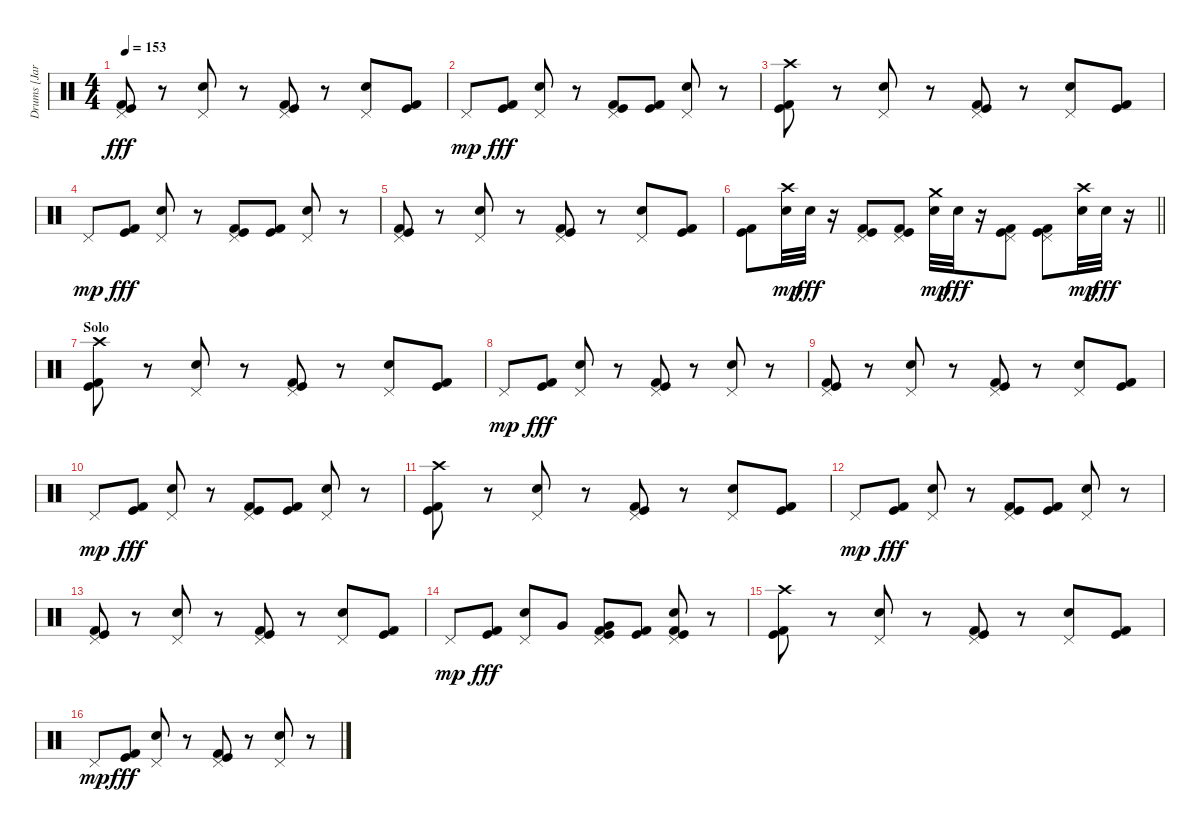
\track ("Drums [Jari]" "Drums [Jar") {instrument percussion}
\staff {score}
\articulation defaults
\ts (4 4)
\tempo 153
\clef neutral
\ks c
("Kick (hit) 2" "Pedal Hi-Hat (hit)" "Kick (hit)").8{dy fff} r.8 ("Pedal Hi-Hat (hit)" "Electric Snare (hit)").8 r.8 ("Kick (hit) 2" "Pedal Hi-Hat (hit)" "Kick (hit)").8 r.8 ("Pedal Hi-Hat (hit)" "Electric Snare (hit)").8 ("Kick (hit) 2" "Kick (hit)").8 |
"Pedal Hi-Hat (hit)".8{dy mp} ("Kick (hit) 2" "Kick (hit)").8{dy fff} ("Pedal Hi-Hat (hit)" "Electric Snare (hit)").8 r.8 ("Kick (hit) 2" "Pedal Hi-Hat (hit)" "Kick (hit)").8 ("Kick (hit) 2" "Kick (hit)").8 ("Pedal Hi-Hat (hit)" "Electric Snare (hit)").8 r.8 |
("Kick (hit) 2" "Crash high (hit)" "Kick (hit)").8 r.8 ("Pedal Hi-Hat (hit)" "Electric Snare (hit)").8 r.8 ("Kick (hit) 2" "Pedal Hi-Hat (hit)" "Kick (hit)").8 r.8 ("Pedal Hi-Hat (hit)" "Electric Snare (hit)").8 ("Kick (hit) 2" "Kick (hit)").8 |
"Pedal Hi-Hat (hit)".8{dy mp} ("Kick (hit) 2" "Kick (hit)").8{dy fff} ("Pedal Hi-Hat (hit)" "Electric Snare (hit)").8 r.8 ("Kick (hit) 2" "Pedal Hi-Hat (hit)" "Kick (hit)").8 ("Kick (hit) 2" "Kick (hit)").8 ("Pedal Hi-Hat (hit)" "Electric Snare (hit)").8 r.8 |
("Kick (hit) 2" "Pedal Hi-Hat (hit)" "Kick (hit)").8 r.8 ("Pedal Hi-Hat (hit)" "Electric Snare (hit)").8 r.8 ("Kick (hit) 2" "Pedal Hi-Hat (hit)" "Kick (hit)").8 r.8 ("Pedal Hi-Hat (hit)" "Electric Snare (hit)").8 ("Kick (hit) 2" "Kick (hit)").8 |
\barLineRight lightlight
("Kick (hit) 2" "Kick (hit)").8 ("Crash high (hit)" "Electric Snare (hit)").32{dy mp} "Electric Snare (hit)".32{dy fff} r.16 ("Kick (hit) 2" "Pedal Hi-Hat (hit)" "Kick (hit)").8 ("Kick (hit) 2" "Pedal Hi-Hat (hit)" "Kick (hit)").8 ("Crash medium (hit)" "Electric Snare (hit)").32{dy mp} "Electric Snare (hit)".32{dy fff} r.16 ("Kick (hit) 2" "Pedal Hi-Hat (hit)" "Kick (hit)").8 ("Kick (hit) 2" "Pedal Hi-Hat (hit)" "Kick (hit)").8 ("Crash high (hit)" "Electric Snare (hit)").32{dy mp} "Electric Snare (hit)".32{dy fff} r.16 |
\section ("" "Solo")
("Kick (hit) 2" "Crash high (hit)" "Kick (hit)").8 r.8 ("Pedal Hi-Hat (hit)" "Electric Snare (hit)").8 r.8 ("Kick (hit) 2" "Pedal Hi-Hat (hit)" "Kick (hit)").8 r.8 ("Pedal Hi-Hat (hit)" "Electric Snare (hit)").8 ("Kick (hit) 2" "Kick (hit)").8 |
"Pedal Hi-Hat (hit)".8{dy mp} ("Kick (hit) 2" "Kick (hit)").8{dy fff} ("Pedal Hi-Hat (hit)" "Electric Snare (hit)").8 r.8 ("Kick (hit) 2" "Pedal Hi-Hat (hit)" "Kick (hit)").8 r.8 ("Pedal Hi-Hat (hit)" "Electric Snare (hit)").8 r.8 |
("Kick (hit) 2" "Pedal Hi-Hat (hit)" "Kick (hit)").8 r.8 ("Pedal Hi-Hat (hit)" "Electric Snare (hit)").8 r.8 ("Kick (hit) 2" "Pedal Hi-Hat (hit)" "Kick (hit)").8 r.8 ("Pedal Hi-Hat (hit)" "Electric Snare (hit)").8 ("Kick (hit) 2" "Kick (hit)").8 |
"Pedal Hi-Hat (hit)".8{dy mp} ("Kick (hit) 2" "Kick (hit)").8{dy fff} ("Pedal Hi-Hat (hit)" "Electric Snare (hit)").8 r.8 ("Kick (hit) 2" "Pedal Hi-Hat (hit)" "Kick (hit)").8 ("Kick (hit) 2" "Kick (hit)").8 ("Pedal Hi-Hat (hit)" "Electric Snare (hit)").8 r.8 |
("Kick (hit) 2" "Crash high (hit)" "Kick (hit)").8 r.8 ("Pedal Hi-Hat (hit)" "Electric Snare (hit)").8 r.8 ("Kick (hit) 2" "Pedal Hi-Hat (hit)" "Kick (hit)").8 r.8 ("Pedal Hi-Hat (hit)" "Electric Snare (hit)").8 ("Kick (hit) 2" "Kick (hit)").8 |
"Pedal Hi-Hat (hit)".8{dy mp} ("Kick (hit) 2" "Kick (hit)").8{dy fff} ("Pedal Hi-Hat (hit)" "Electric Snare (hit)").8 r.8 ("Kick (hit) 2" "Pedal Hi-Hat (hit)" "Kick (hit)").8 ("Kick (hit) 2" "Kick (hit)").8 ("Pedal Hi-Hat (hit)" "Electric Snare (hit)").8 r.8 |
("Kick (hit) 2" "Pedal Hi-Hat (hit)" "Kick (hit)").8 r.8 ("Pedal Hi-Hat (hit)" "Electric Snare (hit)").8 r.8 ("Kick (hit) 2" "Pedal Hi-Hat (hit)" "Kick (hit)").8 r.8 ("Pedal Hi-Hat (hit)" "Electric Snare (hit)").8 ("Kick (hit) 2" "Kick (hit)").8 |
"Pedal Hi-Hat (hit)".8{dy mp} ("Kick (hit) 2" "Kick (hit)").8{dy fff} ("Pedal Hi-Hat (hit)" "Electric Snare (hit)").8 "Very Low Tom (hit)".8 ("Kick (hit) 2" "Pedal Hi-Hat (hit)" "Very Low Tom (hit)" "Kick (hit)").8 ("Kick (hit) 2" "Kick (hit)").8 ("Kick (hit) 2" "Pedal Hi-Hat (hit)" "Electric Snare (hit)" "Kick (hit)").8 r.8 |
("Kick (hit) 2" "Crash high (hit)" "Kick (hit)").8 r.8 ("Pedal Hi-Hat (hit)" "Electric Snare (hit)").8 r.8 ("Kick (hit) 2" "Pedal Hi-Hat (hit)" "Kick (hit)").8 r.8 ("Pedal Hi-Hat (hit)" "Electric Snare (hit)").8 ("Kick (hit) 2" "Kick (hit)").8 |
"Pedal Hi-Hat (hit)".8{dy mp} ("Kick (hit) 2" "Kick (hit)").8{dy fff} ("Pedal Hi-Hat (hit)" "Electric Snare (hit)").8 r.8 ("Kick (hit) 2" "Pedal Hi-Hat (hit)" "Kick (hit)").8 r.8 ("Pedal Hi-Hat (hit)" "Electric Snare (hit)").8 r.8
